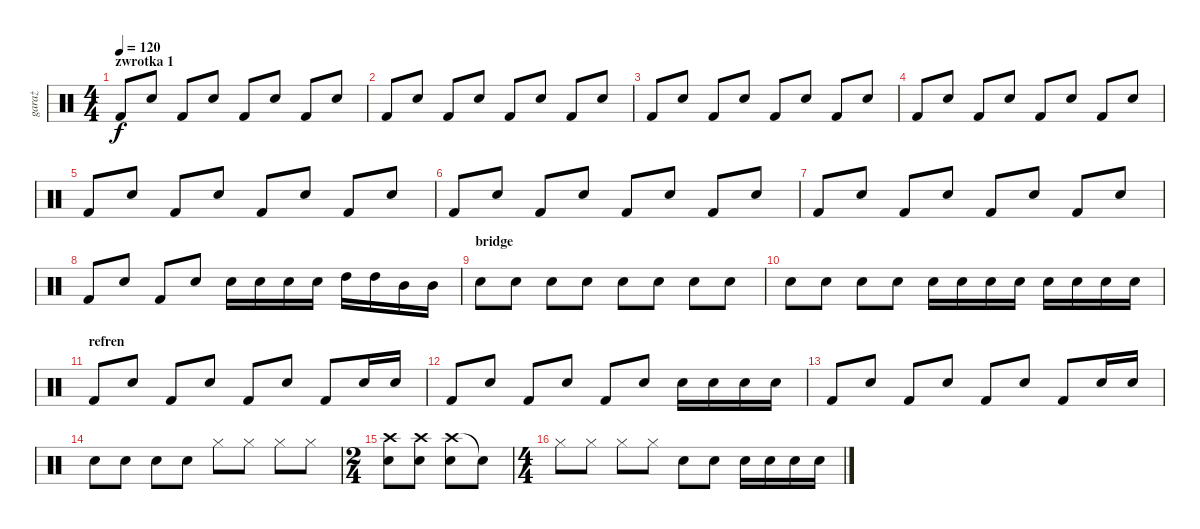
\track ("garaż" "garaż") {instrument percussion}
\staff {score}
\articulation defaults
\ts (4 4)
\section ("" "zwrotka 1")
\tempo 120
\clef neutral
\ks c "Kick (hit) 2".8{dy f} "Snare (hit) 2".8 "Kick (hit) 2".8 "Snare (hit) 2".8 "Kick (hit) 2".8 "Snare (hit) 2".8 "Kick (hit) 2".8 "Snare (hit) 2".8
|
"Kick (hit) 2".8 "Snare (hit) 2".8 "Kick (hit) 2".8 "Snare (hit) 2".8 "Kick (hit) 2".8 "Snare (hit) 2".8 "Kick (hit) 2".8 "Snare (hit) 2".8 |
"Kick (hit) 2".8 "Snare (hit) 2".8 "Kick (hit) 2".8 "Snare (hit) 2".8 "Kick (hit) 2".8 "Snare (hit) 2".8 "Kick (hit) 2".8 "Snare (hit) 2".8 |
"Kick (hit) 2".8 "Snare (hit) 2".8 "Kick (hit) 2".8 "Snare (hit) 2".8 "Kick (hit) 2".8 "Snare (hit) 2".8 "Kick (hit) 2".8 "Snare (hit) 2".8 |
"Kick (hit) 2".8 "Snare (hit) 2".8 "Kick (hit) 2".8 "Snare (hit) 2".8 "Kick (hit) 2".8 "Snare (hit) 2".8 "Kick (hit) 2".8 "Snare (hit) 2".8 |
"Kick (hit) 2".8 "Snare (hit) 2".8 "Kick (hit) 2".8 "Snare (hit) 2".8 "Kick (hit) 2".8 "Snare (hit) 2".8 "Kick (hit) 2".8 "Snare (hit) 2".8 |
"Kick (hit) 2".8 "Snare (hit) 2".8 "Kick (hit) 2".8 "Snare (hit) 2".8 "Kick (hit) 2".8 "Snare (hit) 2".8 "Kick (hit) 2".8 "Snare (hit) 2".8 |
"Kick (hit) 2".8 "Snare (hit) 2".8 "Kick (hit) 2".8 "Snare (hit) 2".8 "Snare (hit) 2".16 "Snare (hit) 2".16 "Snare (hit) 2".16 "Snare (hit) 2".16 "High Tom (hit)".16 "High Tom (hit)".16 "Mid Tom (hit)".16 "Mid Tom (hit)".16 |
\section ("" "bridge")
"Snare (hit) 2".8 "Snare (hit) 2".8 "Snare (hit) 2".8 "Snare (hit) 2".8 "Snare (hit) 2".8 "Snare (hit) 2".8 "Snare (hit) 2".8 "Snare (hit) 2".8 |
"Snare (hit) 2".8 "Snare (hit) 2".8 "Snare (hit) 2".8 "Snare (hit) 2".8 "Snare (hit) 2".16 "Snare (hit) 2".16 "Snare (hit) 2".16 "Snare (hit) 2".16 "Snare (hit) 2".16 "Snare (hit) 2".16 "Snare (hit) 2".16 "Snare (hit) 2".16 |
\section ("" "refren")
"Kick (hit) 2".8 "Snare (hit) 2".8 "Kick (hit) 2".8 "Snare (hit) 2".8 "Kick (hit) 2".8 "Snare (hit) 2".8 "Kick (hit) 2".8 "Snare (hit) 2".16 "Snare (hit) 2".16 |
"Kick (hit) 2".8 "Snare (hit) 2".8 "Kick (hit) 2".8 "Snare (hit) 2".8 "Kick (hit) 2".8 "Snare (hit) 2".8 "Snare (hit) 2".16 "Snare (hit) 2".16 "Snare (hit) 2".16 "Snare (hit) 2".16 |
"Kick (hit) 2".8 "Snare (hit) 2".8 "Kick (hit) 2".8 "Snare (hit) 2".8 "Kick (hit) 2".8 "Snare (hit) 2".8 "Kick (hit) 2".8 "Snare (hit) 2".16 "Snare (hit) 2".16 |
"Snare (hit) 2".8 "Snare (hit) 2".8 "Snare (hit) 2".8 "Snare (hit) 2".8 "Hi-Hat (closed)".8 "Hi-Hat (closed)".8 "Hi-Hat (closed)".8 "Hi-Hat (closed)".8 |
\ts (2 4)
("Crash high (hit)" "Snare (hit) 2").8 ("Crash high (hit)" "Snare (hit) 2").8 ("Crash high (hit)" "Snare (hit) 2").8 "Snare (hit)"{t}.8 |
\ts (4 4)
"Hi-Hat (closed)".8 "Hi-Hat (closed)".8 "Hi-Hat (closed)".8 "Hi-Hat (closed)".8 "Snare (hit) 2".8 "Snare (hit) 2".8 "Snare (hit) 2".16 "Snare (hit) 2".16 "Snare (hit) 2".16 "Snare (hit) 2".16
